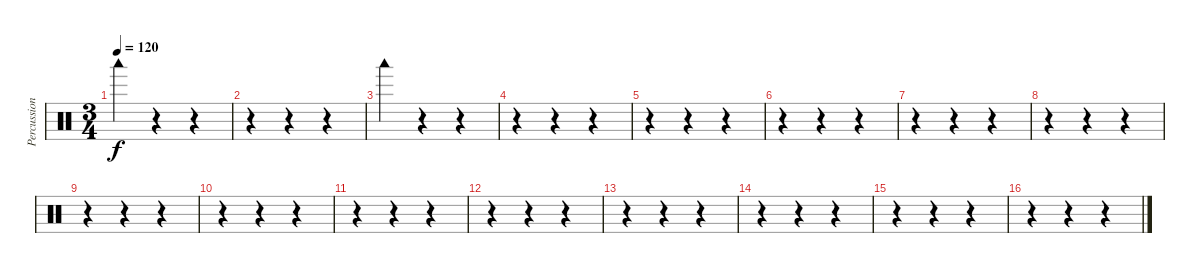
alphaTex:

\track ("Percussions" "Percussion") {instrument percussion}
\staff {score}
\articulation defaults
\ts (3 4)
\tempo 120
\clef neutral
\ks c "Woodblock low (hit)".4{dy f}
r.4 r.4 |
r.4 r.4 r.4 |
"Woodblock low (hit)".4 r.4 r.4 |
r.4 r.4 r.4 |
r.4 r.4 r.4 |
r.4 r.4 r.4 |
r.4 r.4 r.4 |
r.4 r.4 r.4 |
r.4 r.4 r.4 |
r.4 r.4 r.4 |
r.4 r.4 r.4 |
r.4 r.4 r.4 |
r.4 r.4 r.4 |
r.4 r.4 r.4 |
r.4 r.4 r.4 |
r.4 r.4 r.4
